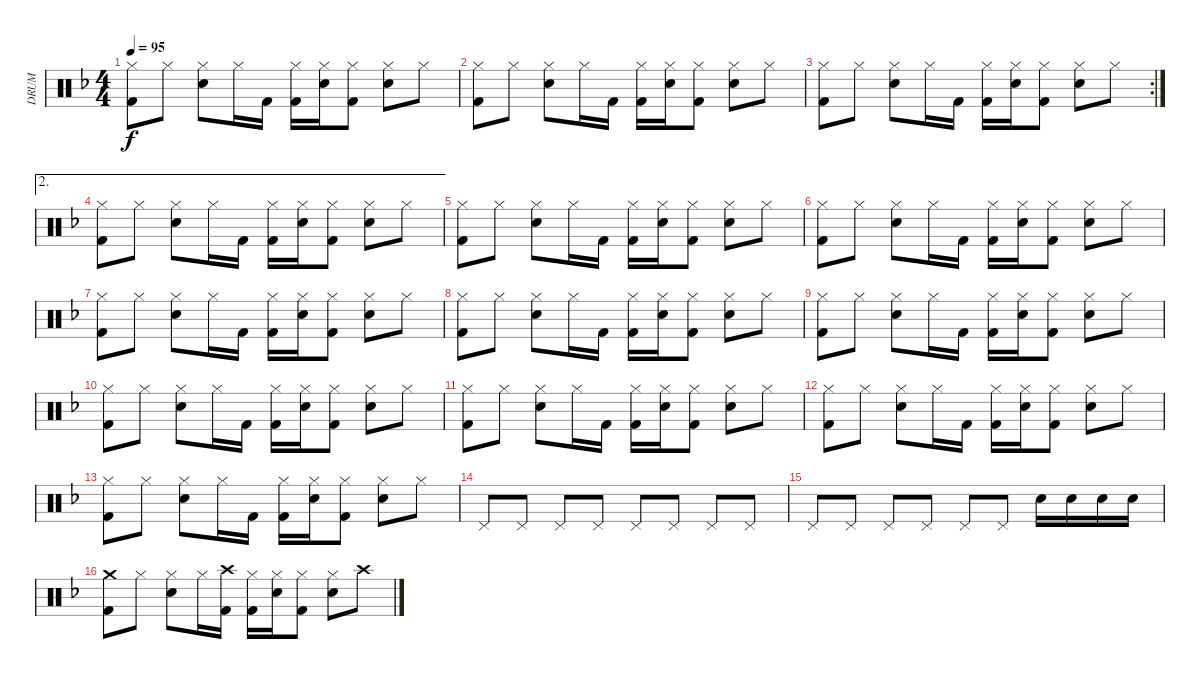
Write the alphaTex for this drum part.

\track ("DRUM" "DRUM") {instrument percussion}
\staff {score}
\articulation defaults
\ts (4 4)
\tempo 95
\clef neutral
\ks f
("Hi-Hat (closed)" "Kick (hit) 2").8{dy f} "Hi-Hat (closed)".8 ("Hi-Hat (closed)" "Electric Snare (hit)").8 "Hi-Hat (closed)".16 "Kick (hit) 2".16 ("Hi-Hat (closed)" "Kick (hit) 2").16 ("Hi-Hat (closed)" "Electric Snare (hit)").16 ("Hi-Hat (closed)" "Kick (hit) 2").8 ("Hi-Hat (closed)" "Electric Snare (hit)").8 "Hi-Hat (closed)".8 |
("Hi-Hat (closed)" "Kick (hit) 2").8 "Hi-Hat (closed)".8 ("Hi-Hat (closed)" "Electric Snare (hit)").8 "Hi-Hat (closed)".16 "Kick (hit) 2".16 ("Hi-Hat (closed)" "Kick (hit) 2").16 ("Hi-Hat (closed)" "Electric Snare (hit)").16 ("Hi-Hat (closed)" "Kick (hit) 2").8 ("Hi-Hat (closed)" "Electric Snare (hit)").8 "Hi-Hat (closed)".8 |
\rc 2
("Hi-Hat (closed)" "Kick (hit) 2").8 "Hi-Hat (closed)".8 ("Hi-Hat (closed)" "Electric Snare (hit)").8 "Hi-Hat (closed)".16 "Kick (hit) 2".16 ("Hi-Hat (closed)" "Kick (hit) 2").16 ("Hi-Hat (closed)" "Electric Snare (hit)").16 ("Hi-Hat (closed)" "Kick (hit) 2").8 ("Hi-Hat (closed)" "Electric Snare (hit)").8 "Hi-Hat (closed)".8 |
\ae 2
("Hi-Hat (closed)" "Kick (hit) 2").8 "Hi-Hat (closed)".8 ("Hi-Hat (closed)" "Electric Snare (hit)").8 "Hi-Hat (closed)".16 "Kick (hit) 2".16 ("Hi-Hat (closed)" "Kick (hit) 2").16 ("Hi-Hat (closed)" "Electric Snare (hit)").16 ("Hi-Hat (closed)" "Kick (hit) 2").8 ("Hi-Hat (closed)" "Electric Snare (hit)").8 "Hi-Hat (closed)".8 |
("Hi-Hat (closed)" "Kick (hit) 2").8 "Hi-Hat (closed)".8 ("Hi-Hat (closed)" "Electric Snare (hit)").8 "Hi-Hat (closed)".16 "Kick (hit) 2".16 ("Hi-Hat (closed)" "Kick (hit) 2").16 ("Hi-Hat (closed)" "Electric Snare (hit)").16 ("Hi-Hat (closed)" "Kick (hit) 2").8 ("Hi-Hat (closed)" "Electric Snare (hit)").8 "Hi-Hat (closed)".8 |
("Hi-Hat (closed)" "Kick (hit) 2").8 "Hi-Hat (closed)".8 ("Hi-Hat (closed)" "Electric Snare (hit)").8 "Hi-Hat (closed)".16 "Kick (hit) 2".16 ("Hi-Hat (closed)" "Kick (hit) 2").16 ("Hi-Hat (closed)" "Electric Snare (hit)").16 ("Hi-Hat (closed)" "Kick (hit) 2").8 ("Hi-Hat (closed)" "Electric Snare (hit)").8 "Hi-Hat (closed)".8 |
("Hi-Hat (closed)" "Kick (hit) 2").8 "Hi-Hat (closed)".8 ("Hi-Hat (closed)" "Electric Snare (hit)").8 "Hi-Hat (closed)".16 "Kick (hit) 2".16 ("Hi-Hat (closed)" "Kick (hit) 2").16 ("Hi-Hat (closed)" "Electric Snare (hit)").16 ("Hi-Hat (closed)" "Kick (hit) 2").8 ("Hi-Hat (closed)" "Electric Snare (hit)").8 "Hi-Hat (closed)".8 |
("Hi-Hat (closed)" "Kick (hit) 2").8 "Hi-Hat (closed)".8 ("Hi-Hat (closed)" "Electric Snare (hit)").8 "Hi-Hat (closed)".16 "Kick (hit) 2".16 ("Hi-Hat (closed)" "Kick (hit) 2").16 ("Hi-Hat (closed)" "Electric Snare (hit)").16 ("Hi-Hat (closed)" "Kick (hit) 2").8 ("Hi-Hat (closed)" "Electric Snare (hit)").8 "Hi-Hat (closed)".8 |
("Hi-Hat (closed)" "Kick (hit) 2").8 "Hi-Hat (closed)".8 ("Hi-Hat (closed)" "Electric Snare (hit)").8 "Hi-Hat (closed)".16 "Kick (hit) 2".16 ("Hi-Hat (closed)" "Kick (hit) 2").16 ("Hi-Hat (closed)" "Electric Snare (hit)").16 ("Hi-Hat (closed)" "Kick (hit) 2").8 ("Hi-Hat (closed)" "Electric Snare (hit)").8 "Hi-Hat (closed)".8 |
("Hi-Hat (closed)" "Kick (hit) 2").8 "Hi-Hat (closed)".8 ("Hi-Hat (closed)" "Electric Snare (hit)").8 "Hi-Hat (closed)".16 "Kick (hit) 2".16 ("Hi-Hat (closed)" "Kick (hit) 2").16 ("Hi-Hat (closed)" "Electric Snare (hit)").16 ("Hi-Hat (closed)" "Kick (hit) 2").8 ("Hi-Hat (closed)" "Electric Snare (hit)").8 "Hi-Hat (closed)".8 |
("Hi-Hat (closed)" "Kick (hit) 2").8 "Hi-Hat (closed)".8 ("Hi-Hat (closed)" "Electric Snare (hit)").8 "Hi-Hat (closed)".16 "Kick (hit) 2".16 ("Hi-Hat (closed)" "Kick (hit) 2").16 ("Hi-Hat (closed)" "Electric Snare (hit)").16 ("Hi-Hat (closed)" "Kick (hit) 2").8 ("Hi-Hat (closed)" "Electric Snare (hit)").8 "Hi-Hat (closed)".8 |
("Hi-Hat (closed)" "Kick (hit) 2").8 "Hi-Hat (closed)".8 ("Hi-Hat (closed)" "Electric Snare (hit)").8 "Hi-Hat (closed)".16 "Kick (hit) 2".16 ("Hi-Hat (closed)" "Kick (hit) 2").16 ("Hi-Hat (closed)" "Electric Snare (hit)").16 ("Hi-Hat (closed)" "Kick (hit) 2").8 ("Hi-Hat (closed)" "Electric Snare (hit)").8 "Hi-Hat (closed)".8 |
("Hi-Hat (closed)" "Kick (hit) 2").8 "Hi-Hat (closed)".8 ("Hi-Hat (closed)" "Electric Snare (hit)").8 "Hi-Hat (closed)".16 "Kick (hit) 2".16 ("Hi-Hat (closed)" "Kick (hit) 2").16 ("Hi-Hat (closed)" "Electric Snare (hit)").16 ("Hi-Hat (closed)" "Kick (hit) 2").8 ("Hi-Hat (closed)" "Electric Snare (hit)").8 "Hi-Hat (closed)".8 |
"Pedal Hi-Hat (hit)".8 "Pedal Hi-Hat (hit)".8 "Pedal Hi-Hat (hit)".8 "Pedal Hi-Hat (hit)".8 "Pedal Hi-Hat (hit)".8 "Pedal Hi-Hat (hit)".8 "Pedal Hi-Hat (hit)".8 "Pedal Hi-Hat (hit)".8 |
"Pedal Hi-Hat (hit)".8 "Pedal Hi-Hat (hit)".8 "Pedal Hi-Hat (hit)".8 "Pedal Hi-Hat (hit)".8 "Pedal Hi-Hat (hit)".8 "Pedal Hi-Hat (hit)".8 "Electric Snare (hit)".16 "Electric Snare (hit)".16 "Electric Snare (hit)".16 "Electric Snare (hit)".16 |
("Crash medium (hit)" "Kick (hit) 2").8 "Hi-Hat (closed)".8 ("Hi-Hat (closed)" "Electric Snare (hit)").8 "Hi-Hat (closed)".16 ("Crash high (hit)" "Kick (hit) 2").16 ("Hi-Hat (closed)" "Kick (hit) 2").16 ("Hi-Hat (closed)" "Electric Snare (hit)").16 ("Hi-Hat (closed)" "Kick (hit) 2").8 ("Hi-Hat (closed)" "Electric Snare (hit)").8 "Crash high (hit)".8
